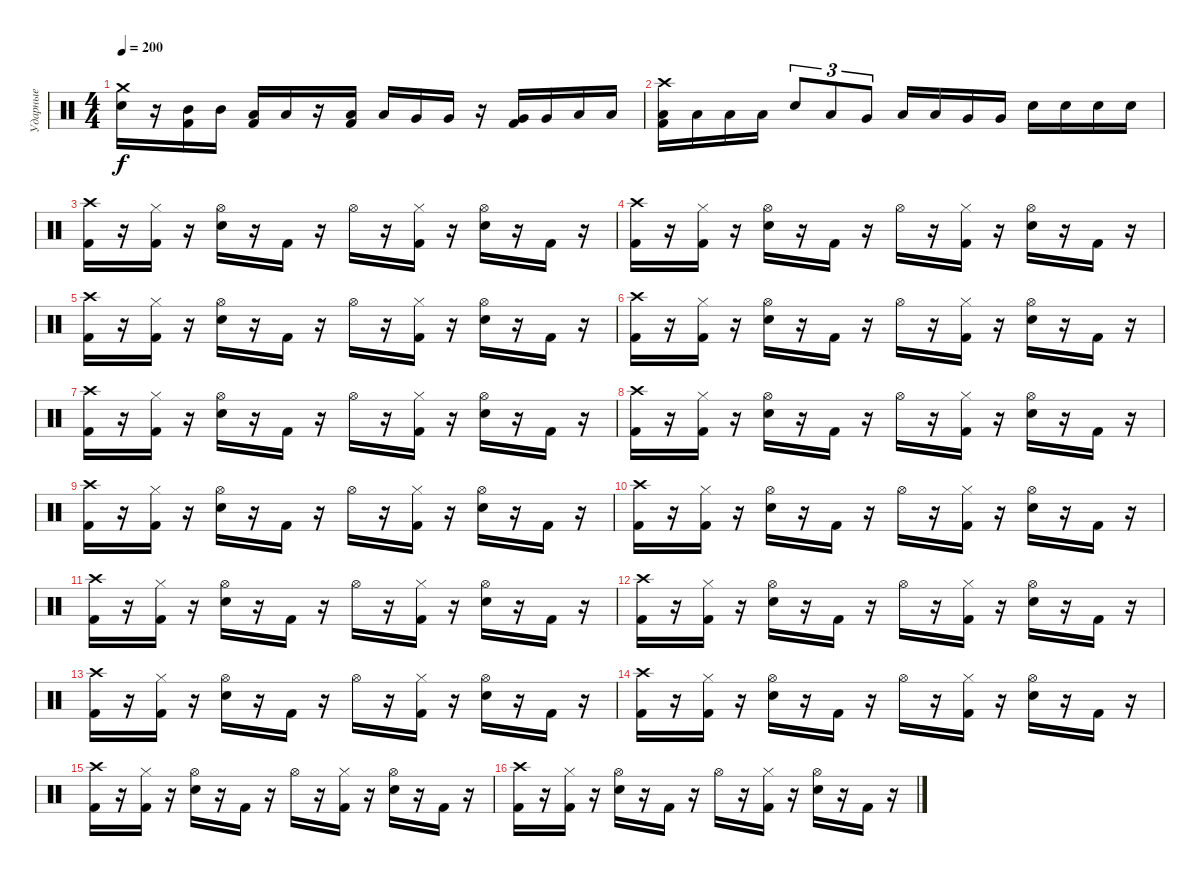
\track ("Ударные" "Ударные") {instrument percussion}
\staff {score}
\articulation defaults
\ts (4 4)
\tempo 200
\clef neutral
\ks c
("Crash medium (hit)" "Electric Snare (hit)").16{dy f} r.16 ("Mid Tom (hit)" "Kick (hit) 2").16 "Mid Tom (hit)".16 ("Low Tom (hit)" "Kick (hit) 2").16 "Low Tom (hit)".16 r.16 ("Low Tom (hit)" "Kick (hit) 2").16 "Low Tom (hit)".16 "Very Low Tom (hit)".16 "Very Low Tom (hit)".16 r.16 ("Very Low Tom (hit)" "Kick (hit) 2").16 "Very Low Tom (hit)".16 "Low Floor Tom (hit)".16 "Low Floor Tom (hit)".16 |
("Crash high (hit)" "Low Floor Tom (hit)" "Kick (hit) 2").16 "Low Floor Tom (hit)".16 "Low Floor Tom (hit)".16 "Low Floor Tom (hit)".16 "Electric Snare (hit)".8{tu (3 2)} "Low Tom (hit)".8{tu (3 2)} "Very Low Tom (hit)".8{tu (3 2)} "Low Tom (hit)".16 "Low Tom (hit)".16 "Very Low Tom (hit)".16 "Very Low Tom (hit)".16 "Electric Snare (hit)".16 "Electric Snare (hit)".16 "Electric Snare (hit)".16 "Electric Snare (hit)".16 |
("Crash high (hit)" "Kick (hit) 2").16 r.16 ("Hi-Hat (closed)" "Kick (hit) 2").16 r.16 ("Hi-Hat (open)" "Electric Snare (hit)").16 r.16 "Kick (hit) 2".16 r.16 "Hi-Hat (open)".16 r.16 ("Hi-Hat (closed)" "Kick (hit) 2").16 r.16 ("Hi-Hat (open)" "Electric Snare (hit)").16 r.16 "Kick (hit) 2".16 r.16 |
("Crash high (hit)" "Kick (hit) 2").16 r.16 ("Hi-Hat (closed)" "Kick (hit) 2").16 r.16 ("Hi-Hat (open)" "Electric Snare (hit)").16 r.16 "Kick (hit) 2".16 r.16 "Hi-Hat (open)".16 r.16 ("Hi-Hat (closed)" "Kick (hit) 2").16 r.16 ("Hi-Hat (open)" "Electric Snare (hit)").16 r.16 "Kick (hit) 2".16 r.16 |
("Crash high (hit)" "Kick (hit) 2").16 r.16 ("Hi-Hat (closed)" "Kick (hit) 2").16 r.16 ("Hi-Hat (open)" "Electric Snare (hit)").16 r.16 "Kick (hit) 2".16 r.16 "Hi-Hat (open)".16 r.16 ("Hi-Hat (closed)" "Kick (hit) 2").16 r.16 ("Hi-Hat (open)" "Electric Snare (hit)").16 r.16 "Kick (hit) 2".16 r.16 |
("Crash high (hit)" "Kick (hit) 2").16 r.16 ("Hi-Hat (closed)" "Kick (hit) 2").16 r.16 ("Hi-Hat (open)" "Electric Snare (hit)").16 r.16 "Kick (hit) 2".16 r.16 "Hi-Hat (open)".16 r.16 ("Hi-Hat (closed)" "Kick (hit) 2").16 r.16 ("Hi-Hat (open)" "Electric Snare (hit)").16 r.16 "Kick (hit) 2".16 r.16 |
("Crash high (hit)" "Kick (hit) 2").16 r.16 ("Hi-Hat (closed)" "Kick (hit) 2").16 r.16 ("Hi-Hat (open)" "Electric Snare (hit)").16 r.16 "Kick (hit) 2".16 r.16 "Hi-Hat (open)".16 r.16 ("Hi-Hat (closed)" "Kick (hit) 2").16 r.16 ("Hi-Hat (open)" "Electric Snare (hit)").16 r.16 "Kick (hit) 2".16 r.16 |
("Crash high (hit)" "Kick (hit) 2").16 r.16 ("Hi-Hat (closed)" "Kick (hit) 2").16 r.16 ("Hi-Hat (open)" "Electric Snare (hit)").16 r.16 "Kick (hit) 2".16 r.16 "Hi-Hat (open)".16 r.16 ("Hi-Hat (closed)" "Kick (hit) 2").16 r.16 ("Hi-Hat (open)" "Electric Snare (hit)").16 r.16 "Kick (hit) 2".16 r.16 |
("Crash high (hit)" "Kick (hit) 2").16 r.16 ("Hi-Hat (closed)" "Kick (hit) 2").16 r.16 ("Hi-Hat (open)" "Electric Snare (hit)").16 r.16 "Kick (hit) 2".16 r.16 "Hi-Hat (open)".16 r.16 ("Hi-Hat (closed)" "Kick (hit) 2").16 r.16 ("Hi-Hat (open)" "Electric Snare (hit)").16 r.16 "Kick (hit) 2".16 r.16 |
("Crash high (hit)" "Kick (hit) 2").16 r.16 ("Hi-Hat (closed)" "Kick (hit) 2").16 r.16 ("Hi-Hat (open)" "Electric Snare (hit)").16 r.16 "Kick (hit) 2".16 r.16 "Hi-Hat (open)".16 r.16 ("Hi-Hat (closed)" "Kick (hit) 2").16 r.16 ("Hi-Hat (open)" "Electric Snare (hit)").16 r.16 "Kick (hit) 2".16 r.16 |
("Crash high (hit)" "Kick (hit) 2").16 r.16 ("Hi-Hat (closed)" "Kick (hit) 2").16 r.16 ("Hi-Hat (open)" "Electric Snare (hit)").16 r.16 "Kick (hit) 2".16 r.16 "Hi-Hat (open)".16 r.16 ("Hi-Hat (closed)" "Kick (hit) 2").16 r.16 ("Hi-Hat (open)" "Electric Snare (hit)").16 r.16 "Kick (hit) 2".16 r.16 |
("Crash high (hit)" "Kick (hit) 2").16 r.16 ("Hi-Hat (closed)" "Kick (hit) 2").16 r.16 ("Hi-Hat (open)" "Electric Snare (hit)").16 r.16 "Kick (hit) 2".16 r.16 "Hi-Hat (open)".16 r.16 ("Hi-Hat (closed)" "Kick (hit) 2").16 r.16 ("Hi-Hat (open)" "Electric Snare (hit)").16 r.16 "Kick (hit) 2".16 r.16 |
("Crash high (hit)" "Kick (hit) 2").16 r.16 ("Hi-Hat (closed)" "Kick (hit) 2").16 r.16 ("Hi-Hat (open)" "Electric Snare (hit)").16 r.16 "Kick (hit) 2".16 r.16 "Hi-Hat (open)".16 r.16 ("Hi-Hat (closed)" "Kick (hit) 2").16 r.16 ("Hi-Hat (open)" "Electric Snare (hit)").16 r.16 "Kick (hit) 2".16 r.16 |
("Crash high (hit)" "Kick (hit) 2").16 r.16 ("Hi-Hat (closed)" "Kick (hit) 2").16 r.16 ("Hi-Hat (open)" "Electric Snare (hit)").16 r.16 "Kick (hit) 2".16 r.16 "Hi-Hat (open)".16 r.16 ("Hi-Hat (closed)" "Kick (hit) 2").16 r.16 ("Hi-Hat (open)" "Electric Snare (hit)").16 r.16 "Kick (hit) 2".16 r.16 |
("Crash high (hit)" "Kick (hit) 2").16 r.16 ("Hi-Hat (closed)" "Kick (hit) 2").16 r.16 ("Hi-Hat (open)" "Electric Snare (hit)").16 r.16 "Kick (hit) 2".16 r.16 "Hi-Hat (open)".16 r.16 ("Hi-Hat (closed)" "Kick (hit) 2").16 r.16 ("Hi-Hat (open)" "Electric Snare (hit)").16 r.16 "Kick (hit) 2".16 r.16 |
("Crash high (hit)" "Kick (hit) 2").16 r.16 ("Hi-Hat (closed)" "Kick (hit) 2").16 r.16 ("Hi-Hat (open)" "Electric Snare (hit)").16 r.16 "Kick (hit) 2".16 r.16 "Hi-Hat (open)".16 r.16 ("Hi-Hat (closed)" "Kick (hit) 2").16 r.16 ("Hi-Hat (open)" "Electric Snare (hit)").16 r.16 "Kick (hit) 2".16 r.16
